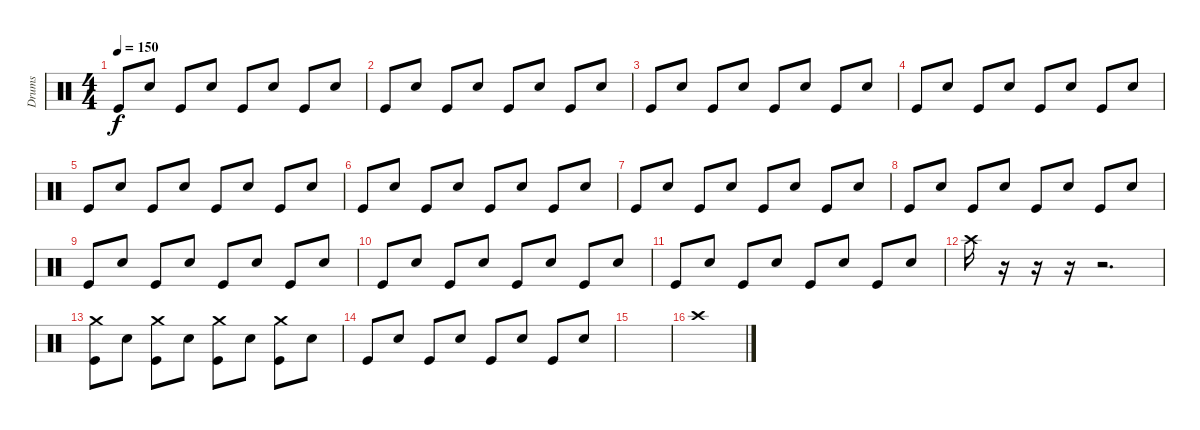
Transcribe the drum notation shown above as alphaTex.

\track ("Drums" "Drums") {instrument percussion}
\staff {score}
\articulation defaults
\ts (4 4)
\tempo 150
\clef neutral
\ks c "Kick (hit)".8{dy f} "Snare (hit) 2".8 "Kick (hit)".8 "Snare (hit) 2".8 "Kick (hit)".8 "Snare (hit) 2".8 "Kick (hit)".8 "Snare (hit) 2".8
|
"Kick (hit)".8 "Snare (hit) 2".8 "Kick (hit)".8 "Snare (hit) 2".8 "Kick (hit)".8 "Snare (hit) 2".8 "Kick (hit)".8 "Snare (hit) 2".8 |
"Kick (hit)".8 "Snare (hit) 2".8 "Kick (hit)".8 "Snare (hit) 2".8 "Kick (hit)".8 "Snare (hit) 2".8 "Kick (hit)".8 "Snare (hit) 2".8 |
"Kick (hit)".8 "Snare (hit) 2".8 "Kick (hit)".8 "Snare (hit) 2".8 "Kick (hit)".8 "Snare (hit) 2".8 "Kick (hit)".8 "Snare (hit) 2".8 |
"Kick (hit)".8 "Snare (hit) 2".8 "Kick (hit)".8 "Snare (hit) 2".8 "Kick (hit)".8 "Snare (hit) 2".8 "Kick (hit)".8 "Snare (hit) 2".8 |
"Kick (hit)".8 "Snare (hit) 2".8 "Kick (hit)".8 "Snare (hit) 2".8 "Kick (hit)".8 "Snare (hit) 2".8 "Kick (hit)".8 "Snare (hit) 2".8 |
"Kick (hit)".8 "Snare (hit) 2".8 "Kick (hit)".8 "Snare (hit) 2".8 "Kick (hit)".8 "Snare (hit) 2".8 "Kick (hit)".8 "Snare (hit) 2".8 |
"Kick (hit)".8 "Snare (hit) 2".8 "Kick (hit)".8 "Snare (hit) 2".8 "Kick (hit)".8 "Snare (hit) 2".8 "Kick (hit)".8 "Snare (hit) 2".8 |
"Kick (hit)".8 "Snare (hit) 2".8 "Kick (hit)".8 "Snare (hit) 2".8 "Kick (hit)".8 "Snare (hit) 2".8 "Kick (hit)".8 "Snare (hit) 2".8 |
"Kick (hit)".8 "Snare (hit) 2".8 "Kick (hit)".8 "Snare (hit) 2".8 "Kick (hit)".8 "Snare (hit) 2".8 "Kick (hit)".8 "Snare (hit) 2".8 |
"Kick (hit)".8 "Snare (hit) 2".8 "Kick (hit)".8 "Snare (hit) 2".8 "Kick (hit)".8 "Snare (hit) 2".8 "Kick (hit)".8 "Snare (hit) 2".8 |
"Crash high (hit)".16 r.16 r.16 r.16 r.2{d} |
("Crash medium (hit)" "Kick (hit)").8 "Snare (hit) 2".8 ("Crash medium (hit)" "Kick (hit)").8 "Snare (hit) 2".8 ("Crash medium (hit)" "Kick (hit)").8 "Snare (hit) 2".8 ("Crash medium (hit)" "Kick (hit)").8 "Snare (hit) 2".8 |
"Kick (hit)".8 "Snare (hit) 2".8 "Kick (hit)".8 "Snare (hit) 2".8 "Kick (hit)".8 "Snare (hit) 2".8 "Kick (hit)".8 "Snare (hit) 2".8 |
|
"Crash high (hit)".1
